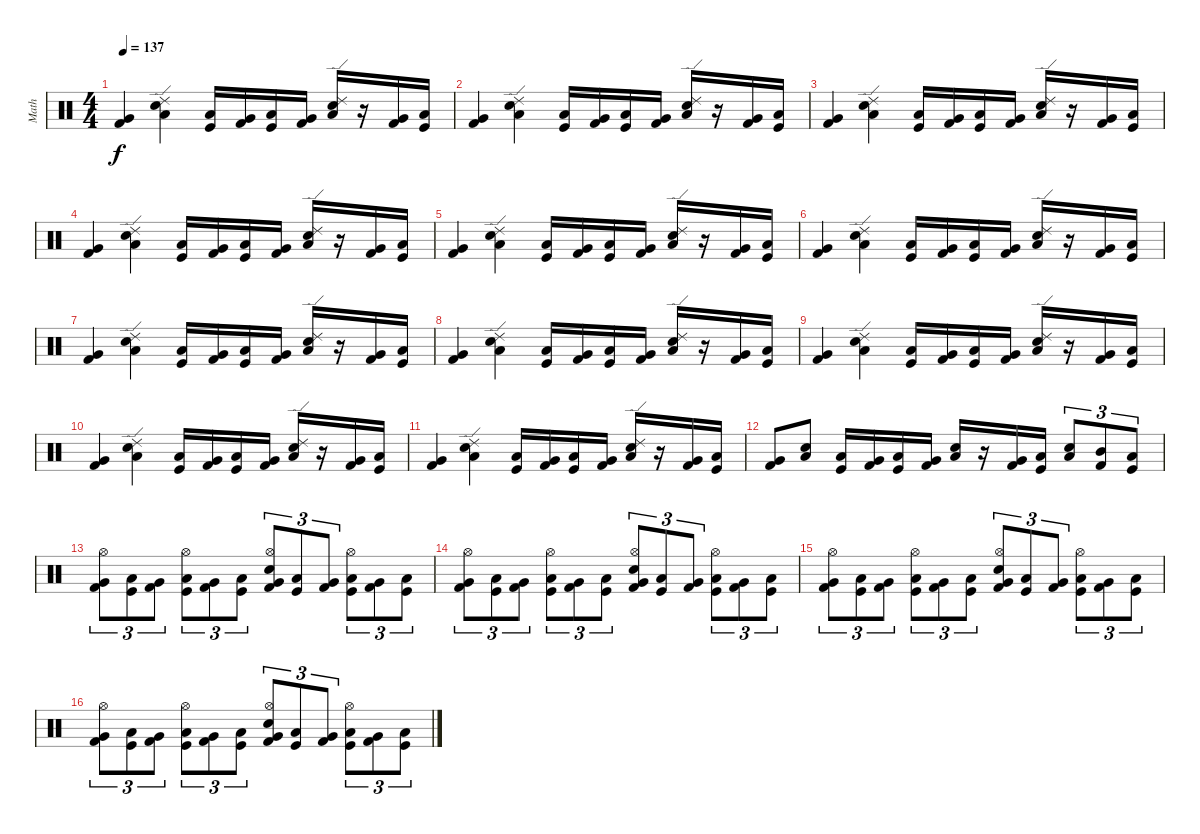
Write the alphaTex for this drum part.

\track ("Math" "Math") {instrument percussion}
\staff {score}
\articulation defaults
\ts (4 4)
\tempo 137
\clef neutral
\ks c
("Kick (hit) 2" "Very Low Tom (hit)").4{dy f} ("Electric Snare (hit)" "Low Floor Tom (hit)" "Ride (edge) 2").4 ("Kick (hit)" "Low Tom (hit)").16 ("Kick (hit) 2" "Very Low Tom (hit)").16 ("Kick (hit)" "Low Tom (hit)").16 ("Kick (hit) 2" "Very Low Tom (hit)").16 ("Electric Snare (hit)" "Low Floor Tom (hit)" "Ride (edge) 2").16 r.16 ("Kick (hit) 2" "Very Low Tom (hit)").16 ("Kick (hit)" "Low Tom (hit)").16 |
("Kick (hit) 2" "Very Low Tom (hit)").4 ("Electric Snare (hit)" "Low Floor Tom (hit)" "Ride (edge) 2").4 ("Kick (hit)" "Low Tom (hit)").16 ("Kick (hit) 2" "Very Low Tom (hit)").16 ("Kick (hit)" "Low Tom (hit)").16 ("Kick (hit) 2" "Very Low Tom (hit)").16 ("Electric Snare (hit)" "Low Floor Tom (hit)" "Ride (edge) 2").16 r.16 ("Kick (hit) 2" "Very Low Tom (hit)").16 ("Kick (hit)" "Low Tom (hit)").16 |
("Kick (hit) 2" "Very Low Tom (hit)").4 ("Electric Snare (hit)" "Low Floor Tom (hit)" "Ride (edge) 2").4 ("Kick (hit)" "Low Tom (hit)").16 ("Kick (hit) 2" "Very Low Tom (hit)").16 ("Kick (hit)" "Low Tom (hit)").16 ("Kick (hit) 2" "Very Low Tom (hit)").16 ("Electric Snare (hit)" "Low Floor Tom (hit)" "Ride (edge) 2").16 r.16 ("Kick (hit) 2" "Very Low Tom (hit)").16 ("Kick (hit)" "Low Tom (hit)").16 |
("Kick (hit) 2" "Very Low Tom (hit)").4 ("Electric Snare (hit)" "Low Floor Tom (hit)" "Ride (edge) 2").4 ("Kick (hit)" "Low Tom (hit)").16 ("Kick (hit) 2" "Very Low Tom (hit)").16 ("Kick (hit)" "Low Tom (hit)").16 ("Kick (hit) 2" "Very Low Tom (hit)").16 ("Electric Snare (hit)" "Low Floor Tom (hit)" "Ride (edge) 2").16 r.16 ("Kick (hit) 2" "Very Low Tom (hit)").16 ("Kick (hit)" "Low Tom (hit)").16 |
("Kick (hit) 2" "Very Low Tom (hit)").4 ("Electric Snare (hit)" "Low Floor Tom (hit)" "Ride (edge) 2").4 ("Kick (hit)" "Low Tom (hit)").16 ("Kick (hit) 2" "Very Low Tom (hit)").16 ("Kick (hit)" "Low Tom (hit)").16 ("Kick (hit) 2" "Very Low Tom (hit)").16 ("Electric Snare (hit)" "Low Floor Tom (hit)" "Ride (edge) 2").16 r.16 ("Kick (hit) 2" "Very Low Tom (hit)").16 ("Kick (hit)" "Low Tom (hit)").16 |
("Kick (hit) 2" "Very Low Tom (hit)").4 ("Electric Snare (hit)" "Low Floor Tom (hit)" "Ride (edge) 2").4 ("Kick (hit)" "Low Tom (hit)").16 ("Kick (hit) 2" "Very Low Tom (hit)").16 ("Kick (hit)" "Low Tom (hit)").16 ("Kick (hit) 2" "Very Low Tom (hit)").16 ("Electric Snare (hit)" "Low Floor Tom (hit)" "Ride (edge) 2").16 r.16 ("Kick (hit) 2" "Very Low Tom (hit)").16 ("Kick (hit)" "Low Tom (hit)").16 |
("Kick (hit) 2" "Very Low Tom (hit)").4 ("Electric Snare (hit)" "Low Floor Tom (hit)" "Ride (edge) 2").4 ("Kick (hit)" "Low Tom (hit)").16 ("Kick (hit) 2" "Very Low Tom (hit)").16 ("Kick (hit)" "Low Tom (hit)").16 ("Kick (hit) 2" "Very Low Tom (hit)").16 ("Electric Snare (hit)" "Low Floor Tom (hit)" "Ride (edge) 2").16 r.16 ("Kick (hit) 2" "Very Low Tom (hit)").16 ("Kick (hit)" "Low Tom (hit)").16 |
("Kick (hit) 2" "Very Low Tom (hit)").4 ("Electric Snare (hit)" "Low Floor Tom (hit)" "Ride (edge) 2").4 ("Kick (hit)" "Low Tom (hit)").16 ("Kick (hit) 2" "Very Low Tom (hit)").16 ("Kick (hit)" "Low Tom (hit)").16 ("Kick (hit) 2" "Very Low Tom (hit)").16 ("Electric Snare (hit)" "Low Floor Tom (hit)" "Ride (edge) 2").16 r.16 ("Kick (hit) 2" "Very Low Tom (hit)").16 ("Kick (hit)" "Low Tom (hit)").16 |
("Kick (hit) 2" "Very Low Tom (hit)").4 ("Electric Snare (hit)" "Low Floor Tom (hit)" "Ride (edge) 2").4 ("Kick (hit)" "Low Tom (hit)").16 ("Kick (hit) 2" "Very Low Tom (hit)").16 ("Kick (hit)" "Low Tom (hit)").16 ("Kick (hit) 2" "Very Low Tom (hit)").16 ("Electric Snare (hit)" "Low Floor Tom (hit)" "Ride (edge) 2").16 r.16 ("Kick (hit) 2" "Very Low Tom (hit)").16 ("Kick (hit)" "Low Tom (hit)").16 |
("Kick (hit) 2" "Very Low Tom (hit)").4 ("Electric Snare (hit)" "Low Floor Tom (hit)" "Ride (edge) 2").4 ("Kick (hit)" "Low Tom (hit)").16 ("Kick (hit) 2" "Very Low Tom (hit)").16 ("Kick (hit)" "Low Tom (hit)").16 ("Kick (hit) 2" "Very Low Tom (hit)").16 ("Electric Snare (hit)" "Low Floor Tom (hit)" "Ride (edge) 2").16 r.16 ("Kick (hit) 2" "Very Low Tom (hit)").16 ("Kick (hit)" "Low Tom (hit)").16 |
("Kick (hit) 2" "Very Low Tom (hit)").4 ("Electric Snare (hit)" "Low Floor Tom (hit)" "Ride (edge) 2").4 ("Kick (hit)" "Low Tom (hit)").16 ("Kick (hit) 2" "Very Low Tom (hit)").16 ("Kick (hit)" "Low Tom (hit)").16 ("Kick (hit) 2" "Very Low Tom (hit)").16 ("Electric Snare (hit)" "Low Floor Tom (hit)" "Ride (edge) 2").16 r.16 ("Kick (hit) 2" "Very Low Tom (hit)").16 ("Kick (hit)" "Low Tom (hit)").16 |
("Kick (hit) 2" "Very Low Tom (hit)").8 ("Electric Snare (hit)" "Low Floor Tom (hit)").8 ("Kick (hit)" "Low Tom (hit)").16 ("Kick (hit) 2" "Very Low Tom (hit)").16 ("Kick (hit)" "Low Tom (hit)").16 ("Kick (hit) 2" "Very Low Tom (hit)").16 ("Electric Snare (hit)" "Low Floor Tom (hit)").16 r.16 ("Kick (hit) 2" "Very Low Tom (hit)").16 ("Kick (hit)" "Low Tom (hit)").16 ("Electric Snare (hit)" "Low Floor Tom (hit)").8{tu (3 2)} ("Mid Tom (hit)" "Kick (hit) 2").8{tu (3 2)} ("Low Tom (hit)" "Kick (hit)").8{tu (3 2)} |
("Kick (hit) 2" "Very Low Tom (hit)" "Hi-Hat (open)").8{tu (3 2)} ("Kick (hit)" "Low Tom (hit)").8{tu (3 2)} ("Kick (hit) 2" "Very Low Tom (hit)").8{tu (3 2)} ("Kick (hit)" "Low Tom (hit)" "Hi-Hat (open)").8{tu (3 2)} ("Kick (hit) 2" "Very Low Tom (hit)").8{tu (3 2)} ("Kick (hit)" "Low Tom (hit)").8{tu (3 2)} ("Kick (hit) 2" "Very Low Tom (hit)" "Snare (hit) 2" "Hi-Hat (open)").8{tu (3 2)} ("Kick (hit)" "Low Tom (hit)").8{tu (3 2)} ("Kick (hit) 2" "Very Low Tom (hit)").8{tu (3 2)} ("Kick (hit)" "Low Tom (hit)" "Hi-Hat (open)").8{tu (3 2)} ("Kick (hit) 2" "Very Low Tom (hit)").8{tu (3 2)} ("Kick (hit)" "Low Tom (hit)").8{tu (3 2)} |
("Kick (hit) 2" "Very Low Tom (hit)" "Hi-Hat (open)").8{tu (3 2)} ("Kick (hit)" "Low Tom (hit)").8{tu (3 2)} ("Kick (hit) 2" "Very Low Tom (hit)").8{tu (3 2)} ("Kick (hit)" "Low Tom (hit)" "Hi-Hat (open)").8{tu (3 2)} ("Kick (hit) 2" "Very Low Tom (hit)").8{tu (3 2)} ("Kick (hit)" "Low Tom (hit)").8{tu (3 2)} ("Kick (hit) 2" "Very Low Tom (hit)" "Snare (hit) 2" "Hi-Hat (open)").8{tu (3 2)} ("Kick (hit)" "Low Tom (hit)").8{tu (3 2)} ("Kick (hit) 2" "Very Low Tom (hit)").8{tu (3 2)} ("Kick (hit)" "Low Tom (hit)" "Hi-Hat (open)").8{tu (3 2)} ("Kick (hit) 2" "Very Low Tom (hit)").8{tu (3 2)} ("Kick (hit)" "Low Tom (hit)").8{tu (3 2)} |
("Kick (hit) 2" "Very Low Tom (hit)" "Hi-Hat (open)").8{tu (3 2)} ("Kick (hit)" "Low Tom (hit)").8{tu (3 2)} ("Kick (hit) 2" "Very Low Tom (hit)").8{tu (3 2)} ("Kick (hit)" "Low Tom (hit)" "Hi-Hat (open)").8{tu (3 2)} ("Kick (hit) 2" "Very Low Tom (hit)").8{tu (3 2)} ("Kick (hit)" "Low Tom (hit)").8{tu (3 2)} ("Kick (hit) 2" "Very Low Tom (hit)" "Snare (hit) 2" "Hi-Hat (open)").8{tu (3 2)} ("Kick (hit)" "Low Tom (hit)").8{tu (3 2)} ("Kick (hit) 2" "Very Low Tom (hit)").8{tu (3 2)} ("Kick (hit)" "Low Tom (hit)" "Hi-Hat (open)").8{tu (3 2)} ("Kick (hit) 2" "Very Low Tom (hit)").8{tu (3 2)} ("Kick (hit)" "Low Tom (hit)").8{tu (3 2)} |
("Kick (hit) 2" "Very Low Tom (hit)" "Hi-Hat (open)").8{tu (3 2)} ("Kick (hit)" "Low Tom (hit)").8{tu (3 2)} ("Kick (hit) 2" "Very Low Tom (hit)").8{tu (3 2)} ("Kick (hit)" "Low Tom (hit)" "Hi-Hat (open)").8{tu (3 2)} ("Kick (hit) 2" "Very Low Tom (hit)").8{tu (3 2)} ("Kick (hit)" "Low Tom (hit)").8{tu (3 2)} ("Kick (hit) 2" "Very Low Tom (hit)" "Snare (hit) 2" "Hi-Hat (open)").8{tu (3 2)} ("Kick (hit)" "Low Tom (hit)").8{tu (3 2)} ("Kick (hit) 2" "Very Low Tom (hit)").8{tu (3 2)} ("Kick (hit)" "Low Tom (hit)" "Hi-Hat (open)").8{tu (3 2)} ("Kick (hit) 2" "Very Low Tom (hit)").8{tu (3 2)} ("Kick (hit)" "Low Tom (hit)").8{tu (3 2)}
